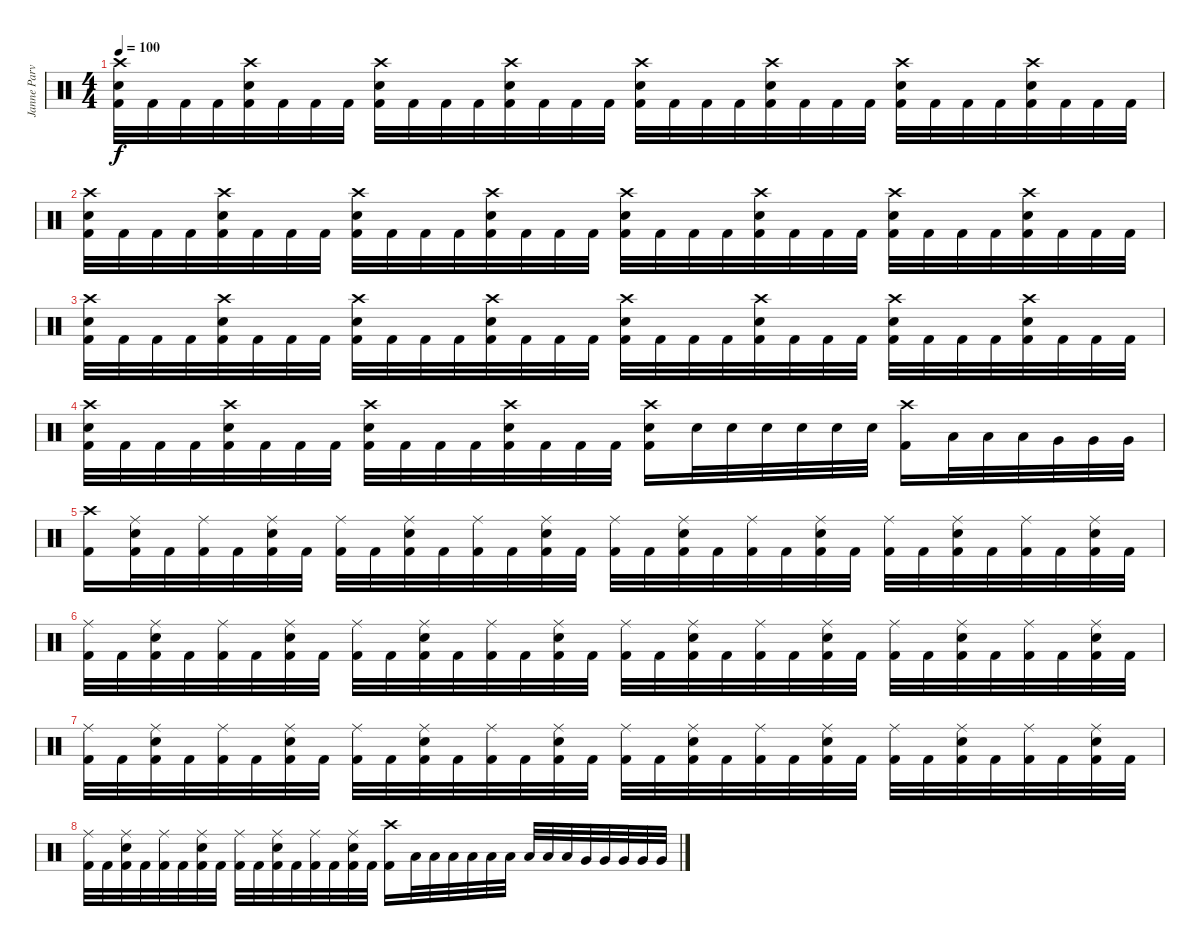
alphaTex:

\track ("Janne Parviainen" "Janne Parv") {instrument percussion}
\staff {score}
\articulation defaults
\ts (4 4)
\tempo 100
\clef neutral
\ks c
("Crash high (hit)" "Electric Snare (hit)" "Kick (hit) 2").32{dy f} "Kick (hit) 2".32 "Kick (hit) 2".32 "Kick (hit) 2".32 ("Crash high (hit)" "Electric Snare (hit)" "Kick (hit) 2").32 "Kick (hit) 2".32 "Kick (hit) 2".32 "Kick (hit) 2".32 ("Crash high (hit)" "Electric Snare (hit)" "Kick (hit) 2").32 "Kick (hit) 2".32 "Kick (hit) 2".32 "Kick (hit) 2".32 ("Crash high (hit)" "Electric Snare (hit)" "Kick (hit) 2").32 "Kick (hit) 2".32 "Kick (hit) 2".32 "Kick (hit) 2".32 ("Crash high (hit)" "Electric Snare (hit)" "Kick (hit) 2").32 "Kick (hit) 2".32 "Kick (hit) 2".32 "Kick (hit) 2".32 ("Crash high (hit)" "Electric Snare (hit)" "Kick (hit) 2").32 "Kick (hit) 2".32 "Kick (hit) 2".32 "Kick (hit) 2".32 ("Crash high (hit)" "Electric Snare (hit)" "Kick (hit) 2").32 "Kick (hit) 2".32 "Kick (hit) 2".32 "Kick (hit) 2".32 ("Crash high (hit)" "Electric Snare (hit)" "Kick (hit) 2").32 "Kick (hit) 2".32 "Kick (hit) 2".32 "Kick (hit) 2".32 |
("Crash high (hit)" "Electric Snare (hit)" "Kick (hit) 2").32 "Kick (hit) 2".32 "Kick (hit) 2".32 "Kick (hit) 2".32 ("Crash high (hit)" "Electric Snare (hit)" "Kick (hit) 2").32 "Kick (hit) 2".32 "Kick (hit) 2".32 "Kick (hit) 2".32 ("Crash high (hit)" "Electric Snare (hit)" "Kick (hit) 2").32 "Kick (hit) 2".32 "Kick (hit) 2".32 "Kick (hit) 2".32 ("Crash high (hit)" "Electric Snare (hit)" "Kick (hit) 2").32 "Kick (hit) 2".32 "Kick (hit) 2".32 "Kick (hit) 2".32 ("Crash high (hit)" "Electric Snare (hit)" "Kick (hit) 2").32 "Kick (hit) 2".32 "Kick (hit) 2".32 "Kick (hit) 2".32 ("Crash high (hit)" "Electric Snare (hit)" "Kick (hit) 2").32 "Kick (hit) 2".32 "Kick (hit) 2".32 "Kick (hit) 2".32 ("Crash high (hit)" "Electric Snare (hit)" "Kick (hit) 2").32 "Kick (hit) 2".32 "Kick (hit) 2".32 "Kick (hit) 2".32 ("Crash high (hit)" "Electric Snare (hit)" "Kick (hit) 2").32 "Kick (hit) 2".32 "Kick (hit) 2".32 "Kick (hit) 2".32 |
("Crash high (hit)" "Electric Snare (hit)" "Kick (hit) 2").32 "Kick (hit) 2".32 "Kick (hit) 2".32 "Kick (hit) 2".32 ("Crash high (hit)" "Electric Snare (hit)" "Kick (hit) 2").32 "Kick (hit) 2".32 "Kick (hit) 2".32 "Kick (hit) 2".32 ("Crash high (hit)" "Electric Snare (hit)" "Kick (hit) 2").32 "Kick (hit) 2".32 "Kick (hit) 2".32 "Kick (hit) 2".32 ("Crash high (hit)" "Electric Snare (hit)" "Kick (hit) 2").32 "Kick (hit) 2".32 "Kick (hit) 2".32 "Kick (hit) 2".32 ("Crash high (hit)" "Electric Snare (hit)" "Kick (hit) 2").32 "Kick (hit) 2".32 "Kick (hit) 2".32 "Kick (hit) 2".32 ("Crash high (hit)" "Electric Snare (hit)" "Kick (hit) 2").32 "Kick (hit) 2".32 "Kick (hit) 2".32 "Kick (hit) 2".32 ("Crash high (hit)" "Electric Snare (hit)" "Kick (hit) 2").32 "Kick (hit) 2".32 "Kick (hit) 2".32 "Kick (hit) 2".32 ("Crash high (hit)" "Electric Snare (hit)" "Kick (hit) 2").32 "Kick (hit) 2".32 "Kick (hit) 2".32 "Kick (hit) 2".32 |
("Crash high (hit)" "Electric Snare (hit)" "Kick (hit) 2").32 "Kick (hit) 2".32 "Kick (hit) 2".32 "Kick (hit) 2".32 ("Crash high (hit)" "Electric Snare (hit)" "Kick (hit) 2").32 "Kick (hit) 2".32 "Kick (hit) 2".32 "Kick (hit) 2".32 ("Crash high (hit)" "Electric Snare (hit)" "Kick (hit) 2").32 "Kick (hit) 2".32 "Kick (hit) 2".32 "Kick (hit) 2".32 ("Crash high (hit)" "Electric Snare (hit)" "Kick (hit) 2").32 "Kick (hit) 2".32 "Kick (hit) 2".32 "Kick (hit) 2".32 ("Crash high (hit)" "Electric Snare (hit)" "Kick (hit) 2").16 "Electric Snare (hit)".32 "Electric Snare (hit)".32 "Electric Snare (hit)".32 "Electric Snare (hit)".32 "Electric Snare (hit)".32 "Electric Snare (hit)".32 ("Crash high (hit)" "Kick (hit) 2").16 "Low Tom (hit)".32 "Low Tom (hit)".32 "Low Tom (hit)".32 "Very Low Tom (hit)".32 "Very Low Tom (hit)".32 "Very Low Tom (hit)".32 |
("Crash high (hit)" "Kick (hit) 2").16 ("Ride (middle)" "Electric Snare (hit)" "Kick (hit) 2").32 "Kick (hit) 2".32 ("Ride (middle)" "Kick (hit) 2").32 "Kick (hit) 2".32 ("Ride (middle)" "Electric Snare (hit)" "Kick (hit) 2").32 "Kick (hit) 2".32 ("Ride (middle)" "Kick (hit) 2").32 "Kick (hit) 2".32 ("Ride (middle)" "Electric Snare (hit)" "Kick (hit) 2").32 "Kick (hit) 2".32 ("Ride (middle)" "Kick (hit) 2").32 "Kick (hit) 2".32 ("Ride (middle)" "Electric Snare (hit)" "Kick (hit) 2").32 "Kick (hit) 2".32 ("Ride (middle)" "Kick (hit) 2").32 "Kick (hit) 2".32 ("Ride (middle)" "Electric Snare (hit)" "Kick (hit) 2").32 "Kick (hit) 2".32 ("Ride (middle)" "Kick (hit) 2").32 "Kick (hit) 2".32 ("Ride (middle)" "Electric Snare (hit)" "Kick (hit) 2").32 "Kick (hit) 2".32 ("Ride (middle)" "Kick (hit) 2").32 "Kick (hit) 2".32 ("Ride (middle)" "Electric Snare (hit)" "Kick (hit) 2").32 "Kick (hit) 2".32 ("Ride (middle)" "Kick (hit) 2").32 "Kick (hit) 2".32 ("Ride (middle)" "Electric Snare (hit)" "Kick (hit) 2").32 "Kick (hit) 2".32 |
("Ride (middle)" "Kick (hit) 2").32 "Kick (hit) 2".32 ("Ride (middle)" "Electric Snare (hit)" "Kick (hit) 2").32 "Kick (hit) 2".32 ("Ride (middle)" "Kick (hit) 2").32 "Kick (hit) 2".32 ("Ride (middle)" "Electric Snare (hit)" "Kick (hit) 2").32 "Kick (hit) 2".32 ("Ride (middle)" "Kick (hit) 2").32 "Kick (hit) 2".32 ("Ride (middle)" "Electric Snare (hit)" "Kick (hit) 2").32 "Kick (hit) 2".32 ("Ride (middle)" "Kick (hit) 2").32 "Kick (hit) 2".32 ("Ride (middle)" "Electric Snare (hit)" "Kick (hit) 2").32 "Kick (hit) 2".32 ("Ride (middle)" "Kick (hit) 2").32 "Kick (hit) 2".32 ("Ride (middle)" "Electric Snare (hit)" "Kick (hit) 2").32 "Kick (hit) 2".32 ("Ride (middle)" "Kick (hit) 2").32 "Kick (hit) 2".32 ("Ride (middle)" "Electric Snare (hit)" "Kick (hit) 2").32 "Kick (hit) 2".32 ("Ride (middle)" "Kick (hit) 2").32 "Kick (hit) 2".32 ("Ride (middle)" "Electric Snare (hit)" "Kick (hit) 2").32 "Kick (hit) 2".32 ("Ride (middle)" "Kick (hit) 2").32 "Kick (hit) 2".32 ("Ride (middle)" "Electric Snare (hit)" "Kick (hit) 2").32 "Kick (hit) 2".32 |
("Ride (middle)" "Kick (hit) 2").32 "Kick (hit) 2".32 ("Ride (middle)" "Electric Snare (hit)" "Kick (hit) 2").32 "Kick (hit) 2".32 ("Ride (middle)" "Kick (hit) 2").32 "Kick (hit) 2".32 ("Ride (middle)" "Electric Snare (hit)" "Kick (hit) 2").32 "Kick (hit) 2".32 ("Ride (middle)" "Kick (hit) 2").32 "Kick (hit) 2".32 ("Ride (middle)" "Electric Snare (hit)" "Kick (hit) 2").32 "Kick (hit) 2".32 ("Ride (middle)" "Kick (hit) 2").32 "Kick (hit) 2".32 ("Ride (middle)" "Electric Snare (hit)" "Kick (hit) 2").32 "Kick (hit) 2".32 ("Ride (middle)" "Kick (hit) 2").32 "Kick (hit) 2".32 ("Ride (middle)" "Electric Snare (hit)" "Kick (hit) 2").32 "Kick (hit) 2".32 ("Ride (middle)" "Kick (hit) 2").32 "Kick (hit) 2".32 ("Ride (middle)" "Electric Snare (hit)" "Kick (hit) 2").32 "Kick (hit) 2".32 ("Ride (middle)" "Kick (hit) 2").32 "Kick (hit) 2".32 ("Ride (middle)" "Electric Snare (hit)" "Kick (hit) 2").32 "Kick (hit) 2".32 ("Ride (middle)" "Kick (hit) 2").32 "Kick (hit) 2".32 ("Ride (middle)" "Electric Snare (hit)" "Kick (hit) 2").32 "Kick (hit) 2".32 |
("Ride (middle)" "Kick (hit) 2").32 "Kick (hit) 2".32 ("Ride (middle)" "Electric Snare (hit)" "Kick (hit) 2").32 "Kick (hit) 2".32 ("Ride (middle)" "Kick (hit) 2").32 "Kick (hit) 2".32 ("Ride (middle)" "Electric Snare (hit)" "Kick (hit) 2").32 "Kick (hit) 2".32 ("Ride (middle)" "Kick (hit) 2").32 "Kick (hit) 2".32 ("Ride (middle)" "Electric Snare (hit)" "Kick (hit) 2").32 "Kick (hit) 2".32 ("Ride (middle)" "Kick (hit) 2").32 "Kick (hit) 2".32 ("Ride (middle)" "Electric Snare (hit)" "Kick (hit) 2").32 "Kick (hit) 2".32 ("Crash high (hit)" "Kick (hit) 2").16 "Low Tom (hit)".32 "Low Tom (hit)".32 "Low Tom (hit)".32 "Low Tom (hit)".32 "Low Tom (hit)".32 "Low Tom (hit)".32 "Low Tom (hit)".32 "Low Tom (hit)".32 "Low Tom (hit)".32 "Very Low Tom (hit)".32 "Very Low Tom (hit)".32 "Very Low Tom (hit)".32 "Very Low Tom (hit)".32 "Very Low Tom (hit)".32
